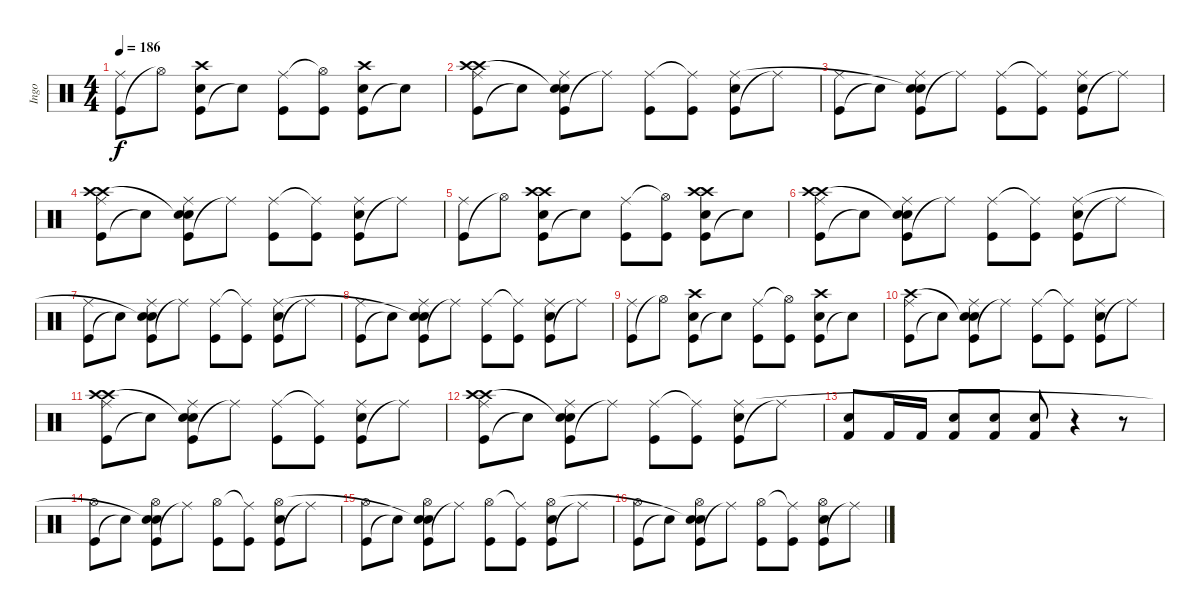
\track ("Ingo" "Ingo") {instrument percussion}
\staff {score}
\articulation defaults
\ts (4 4)
\tempo 186
\clef neutral
\ks c
("Kick (hit)" "Ride (middle)").8{dy f} "Hi-Hat (open)"{t}.8 ("Kick (hit)" "Snare (hit) 2" "Crash high (hit)").8 "Snare (hit)"{t}.8 ("Kick (hit)" "Ride (middle)").8 ("Kick (hit)" "Hi-Hat (open)"{t}).8 ("Kick (hit)" "Snare (hit) 2" "Crash high (hit)").8 "Snare (hit)"{t}.8 |
("Kick (hit)" "Ride (middle)" "Crash high (hit)" "Crash high (hit)").8 "Snare (hit)"{t}.8 ("Kick (hit)" "Snare (hit) 2" "Snare (hit)"{t} "Ride (middle)").8 "Ride (middle)"{t}.8 ("Kick (hit)" "Ride (middle)").8 ("Kick (hit)" "Ride (middle)"{t}).8 ("Kick (hit)" "Snare (hit) 2" "Ride (middle)").8 "Ride (middle)"{t}.8 |
("Kick (hit)" "Ride (middle)").8 "Snare (hit)"{t}.8 ("Kick (hit)" "Snare (hit) 2" "Snare (hit)"{t} "Ride (middle)").8 "Ride (middle)"{t}.8 ("Kick (hit)" "Ride (middle)").8 ("Kick (hit)" "Ride (middle)"{t}).8 ("Kick (hit)" "Snare (hit) 2" "Ride (middle)").8 "Ride (middle)"{t}.8 |
("Kick (hit)" "Ride (middle)" "Crash high (hit)" "Crash high (hit)").8 "Snare (hit)"{t}.8 ("Kick (hit)" "Snare (hit) 2" "Snare (hit)"{t} "Ride (middle)").8 "Ride (middle)"{t}.8 ("Kick (hit)" "Ride (middle)").8 ("Kick (hit)" "Ride (middle)"{t}).8 ("Kick (hit)" "Snare (hit) 2" "Ride (middle)").8 "Ride (middle)"{t}.8 |
("Kick (hit)" "Ride (middle)").8 "Hi-Hat (open)"{t}.8 ("Kick (hit)" "Snare (hit) 2" "Crash high (hit)" "Crash high (hit)").8 "Snare (hit)"{t}.8 ("Kick (hit)" "Ride (middle)").8 ("Kick (hit)" "Hi-Hat (open)"{t}).8 ("Kick (hit)" "Snare (hit) 2" "Crash high (hit)" "Crash high (hit)").8 "Snare (hit)"{t}.8 |
("Kick (hit)" "Ride (middle)" "Crash high (hit)" "Crash high (hit)").8 "Snare (hit)"{t}.8 ("Kick (hit)" "Snare (hit) 2" "Snare (hit)"{t} "Ride (middle)").8 "Ride (middle)"{t}.8 ("Kick (hit)" "Ride (middle)").8 ("Kick (hit)" "Ride (middle)"{t}).8 ("Kick (hit)" "Snare (hit) 2" "Ride (middle)").8 "Ride (middle)"{t}.8 |
("Kick (hit)" "Ride (middle)").8 "Snare (hit)"{t}.8 ("Kick (hit)" "Snare (hit) 2" "Snare (hit)"{t} "Ride (middle)").8 "Ride (middle)"{t}.8 ("Kick (hit)" "Ride (middle)").8 ("Kick (hit)" "Ride (middle)"{t}).8 ("Kick (hit)" "Snare (hit) 2" "Ride (middle)").8 "Ride (middle)"{t}.8 |
("Kick (hit)" "Ride (middle)").8 "Snare (hit)"{t}.8 ("Kick (hit)" "Snare (hit) 2" "Snare (hit)"{t} "Ride (middle)").8 "Ride (middle)"{t}.8 ("Kick (hit)" "Ride (middle)").8 ("Kick (hit)" "Ride (middle)"{t}).8 ("Kick (hit)" "Snare (hit) 2" "Ride (middle)").8 "Ride (middle)"{t}.8 |
("Kick (hit)" "Ride (middle)").8 "Hi-Hat (open)"{t}.8 ("Kick (hit)" "Snare (hit) 2" "Crash high (hit)").8 "Snare (hit)"{t}.8 ("Kick (hit)" "Ride (middle)").8 ("Kick (hit)" "Hi-Hat (open)"{t}).8 ("Kick (hit)" "Snare (hit) 2" "Crash high (hit)").8 "Snare (hit)"{t}.8 |
("Kick (hit)" "Ride (middle)" "Crash high (hit)").8 "Snare (hit)"{t}.8 ("Kick (hit)" "Snare (hit) 2" "Snare (hit)"{t} "Ride (middle)").8 "Ride (middle)"{t}.8 ("Kick (hit)" "Ride (middle)").8 ("Kick (hit)" "Ride (middle)"{t}).8 ("Kick (hit)" "Snare (hit) 2" "Ride (middle)").8 "Ride (middle)"{t}.8 |
("Kick (hit)" "Ride (middle)" "Crash high (hit)" "Crash high (hit)").8 "Snare (hit)"{t}.8 ("Kick (hit)" "Snare (hit) 2" "Snare (hit)"{t} "Ride (middle)").8 "Ride (middle)"{t}.8 ("Kick (hit)" "Ride (middle)").8 ("Kick (hit)" "Ride (middle)"{t}).8 ("Kick (hit)" "Snare (hit) 2" "Ride (middle)").8 "Ride (middle)"{t}.8 |
("Kick (hit)" "Ride (middle)" "Crash high (hit)" "Crash high (hit)").8 "Snare (hit)"{t}.8 ("Kick (hit)" "Snare (hit) 2" "Snare (hit)"{t} "Ride (middle)").8 "Ride (middle)"{t}.8 ("Kick (hit)" "Ride (middle)").8 ("Kick (hit)" "Ride (middle)"{t}).8 ("Kick (hit)" "Snare (hit) 2" "Ride (middle)").8 "Ride (middle)"{t}.8 |
("Kick (hit) 2" "Snare (hit) 2").8 "Kick (hit) 2".16 "Kick (hit) 2".16 ("Kick (hit) 2" "Snare (hit) 2").8 ("Kick (hit) 2" "Snare (hit) 2").8 ("Kick (hit) 2" "Snare (hit) 2").8 r.4 r.8 |
("Kick (hit)" "Hi-Hat (open)").8 "Snare (hit)"{t}.8 ("Kick (hit)" "Snare (hit) 2" "Snare (hit)"{t} "Hi-Hat (open)").8 "Ride (middle)"{t}.8 ("Kick (hit)" "Hi-Hat (open)").8 ("Kick (hit)" "Ride (middle)"{t}).8 ("Kick (hit)" "Snare (hit) 2" "Hi-Hat (open)").8 "Ride (middle)"{t}.8 |
("Kick (hit)" "Hi-Hat (open)").8 "Snare (hit)"{t}.8 ("Kick (hit)" "Snare (hit) 2" "Snare (hit)"{t} "Hi-Hat (open)").8 "Ride (middle)"{t}.8 ("Kick (hit)" "Hi-Hat (open)").8 ("Kick (hit)" "Ride (middle)"{t}).8 ("Kick (hit)" "Snare (hit) 2" "Hi-Hat (open)").8 "Ride (middle)"{t}.8 |
("Kick (hit)" "Hi-Hat (open)").8 "Snare (hit)"{t}.8 ("Kick (hit)" "Snare (hit) 2" "Snare (hit)"{t} "Hi-Hat (open)").8 "Ride (middle)"{t}.8 ("Kick (hit)" "Hi-Hat (open)").8 ("Kick (hit)" "Ride (middle)"{t}).8 ("Kick (hit)" "Snare (hit) 2" "Hi-Hat (open)").8 "Ride (middle)"{t}.8
